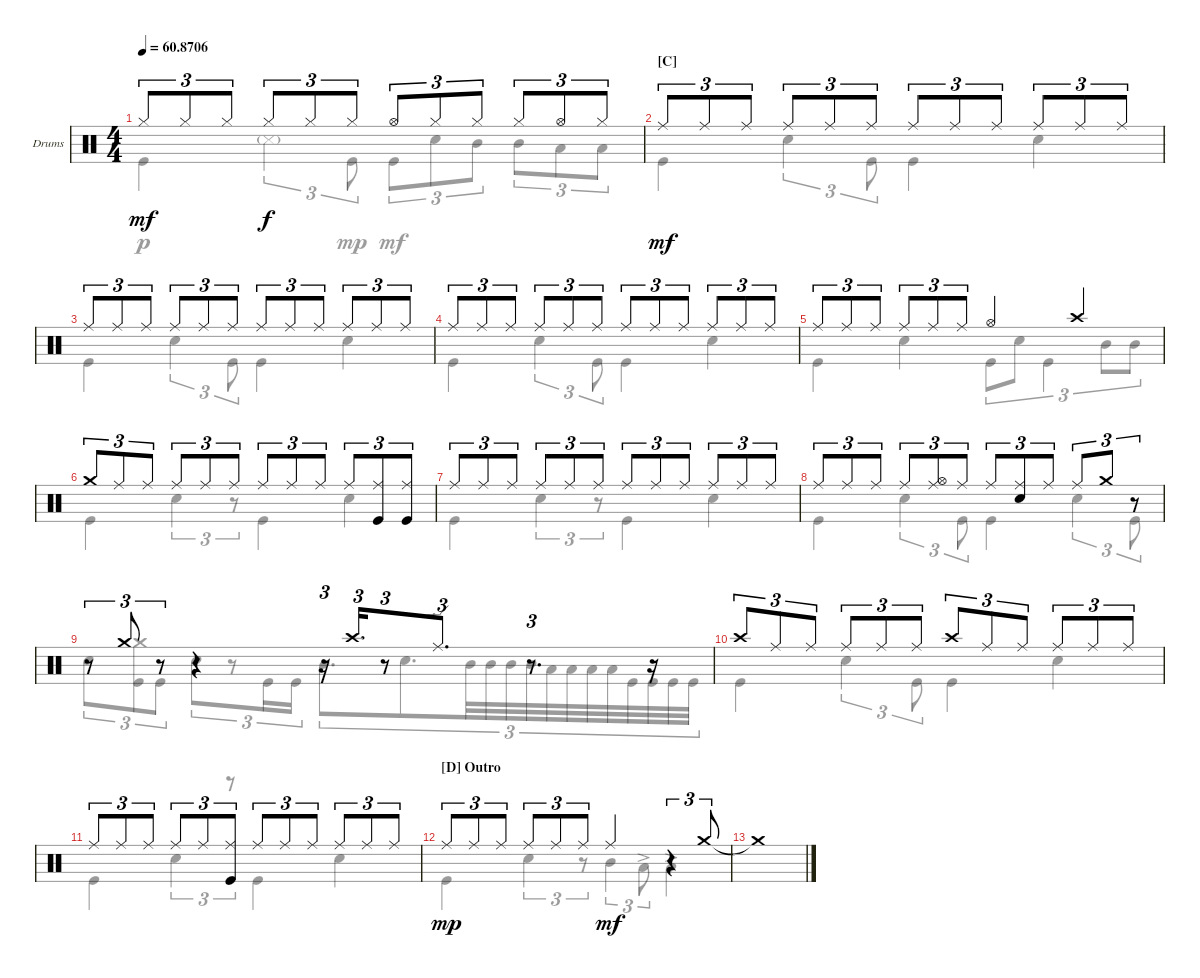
\defaultSystemsLayout 4
\bracketExtendMode nobrackets
\firstSystemTrackNameOrientation horizontal
\otherSystemsTrackNameOrientation horizontal
\track ("Drumkit" "Drums") {instrument percussion}
\staff {score}
\articulation defaults
\voice
\ts (4 4)
\tempo
60.8706
\accidentals auto
\clef neutral
\ottava regular
\simile none
\ks c "Hi-Hat (closed)".8{tu (3 2) dy mf} "Hi-Hat (closed)".8{tu (3 2)} "Hi-Hat (closed)".8{tu (3 2)} "Hi-Hat (closed)".8{tu (3 2) dy f} "Hi-Hat (closed)".8{tu (3 2)} "Hi-Hat (closed)".8{tu (3 2)} "Hi-Hat (open)".8{tu (3 2)} "Hi-Hat (closed)".8{tu (3 2)} "Hi-Hat (closed)".8{tu (3 2)} "Hi-Hat (closed)".8{tu (3 2)} "Hi-Hat (open)".8{tu (3 2)} "Hi-Hat (closed)".8{tu (3 2)}
|
\section ("C" "")
"Ride (middle)".8{tu (3 2) dy mf} "Ride (middle)".8{tu (3 2)} "Ride (middle)".8{tu (3 2)} "Ride (middle)".8{tu (3 2)} "Ride (middle)".8{tu (3 2)} "Ride (middle)".8{tu (3 2)} "Ride (middle)".8{tu (3 2)} "Ride (middle)".8{tu (3 2)} "Ride (middle)".8{tu (3 2)} "Ride (middle)".8{tu (3 2)} "Ride (middle)".8{tu (3 2)} "Ride (middle)".8{tu (3 2)} |
"Ride (middle)".8{tu (3 2)} "Ride (middle)".8{tu (3 2)} "Ride (middle)".8{tu (3 2)} "Ride (middle)".8{tu (3 2)} "Ride (middle)".8{tu (3 2)} "Ride (middle)".8{tu (3 2)} "Ride (middle)".8{tu (3 2)} "Ride (middle)".8{tu (3 2)} "Ride (middle)".8{tu (3 2)} "Ride (middle)".8{tu (3 2)} "Ride (middle)".8{tu (3 2)} "Ride (middle)".8{tu (3 2)} |
"Ride (middle)".8{tu (3 2)} "Ride (middle)".8{tu (3 2)} "Ride (middle)".8{tu (3 2)} "Ride (middle)".8{tu (3 2)} "Ride (middle)".8{tu (3 2)} "Ride (middle)".8{tu (3 2)} "Ride (middle)".8{tu (3 2)} "Ride (middle)".8{tu (3 2)} "Ride (middle)".8{tu (3 2)} "Ride (middle)".8{tu (3 2)} "Ride (middle)".8{tu (3 2)} "Ride (middle)".8{tu (3 2)} |
"Ride (middle)".8{tu (3 2)} "Ride (middle)".8{tu (3 2)} "Ride (middle)".8{tu (3 2)} "Ride (middle)".8{tu (3 2)} "Ride (middle)".8{tu (3 2)} "Ride (middle)".8{tu (3 2)} "Hi-Hat (open)".4 "Crash high (hit)".4 |
"Crash medium (hit)".8{tu (3 2)} "Ride (middle)".8{tu (3 2)} "Ride (middle)".8{tu (3 2)} "Ride (middle)".8{tu (3 2)} "Ride (middle)".8{tu (3 2)} "Ride (middle)".8{tu (3 2)} "Ride (middle)".8{tu (3 2)} "Ride (middle)".8{tu (3 2)} "Ride (middle)".8{tu (3 2)} "Ride (middle)".8{tu (3 2)} ("Ride (middle)" "Kick (hit)").8{tu (3 2)} ("Ride (middle)" "Kick (hit)").8{tu (3 2)} |
"Ride (middle)".8{tu (3 2)} "Ride (middle)".8{tu (3 2)} "Ride (middle)".8{tu (3 2)} "Ride (middle)".8{tu (3 2)} "Ride (middle)".8{tu (3 2)} "Ride (middle)".8{tu (3 2)} "Ride (middle)".8{tu (3 2)} "Ride (middle)".8{tu (3 2)} "Ride (middle)".8{tu (3 2)} "Ride (middle)".8{tu (3 2)} "Ride (middle)".8{tu (3 2)} "Ride (middle)".8{tu (3 2)} |
"Ride (middle)".8{tu (3 2)} "Ride (middle)".8{tu (3 2)} "Ride (middle)".8{tu (3 2)} "Ride (middle)".8{tu (3 2)} ("Ride (middle)" "Hi-Hat (open)").8{tu (3 2)} "Ride (middle)".8{tu (3 2)} "Ride (middle)".8{tu (3 2)} ("Ride (middle)" "Snare (hit) 2").8{tu (3 2)} "Ride (middle)".8{tu (3 2)} "Ride (middle)".8{tu (3 2)} "Crash medium (hit)".8{tu (3 2)} r.8{tu (3 2)} |
r.8{tu (3 2)} "Crash medium (hit)".8{tu (3 2)} r.8{tu (3 2)} r.4 r.16{tu (3 2)} "Crash high (hit)".16{d tu (3 2)} r.8{tu (3 2)} "Ride (edge)".8{d tu (3 2)} r.8{d tu (3 2)} r.16 |
"Crash high (hit)".8{tu (3 2)} "Ride (middle)".8{tu (3 2)} "Ride (middle)".8{tu (3 2)} "Ride (middle)".8{tu (3 2)} "Ride (middle)".8{tu (3 2)} "Ride (middle)".8{tu (3 2)} "Crash high (hit)".8{tu (3 2)} "Ride (middle)".8{tu (3 2)} "Ride (middle)".8{tu (3 2)} "Ride (middle)".8{tu (3 2)} "Ride (middle)".8{tu (3 2)} "Ride (middle)".8{tu (3 2)} |
"Ride (middle)".8{tu (3 2)} "Ride (middle)".8{tu (3 2)} "Ride (middle)".8{tu (3 2)} "Ride (middle)".8{tu (3 2)} "Ride (middle)".8{tu (3 2)} ("Ride (middle)" "Kick (hit)").8{tu (3 2)} "Ride (middle)".8{tu (3 2)} "Ride (middle)".8{tu (3 2)} "Ride (middle)".8{tu (3 2)} "Ride (middle)".8{tu (3 2)} "Ride (middle)".8{tu (3 2)} "Ride (middle)".8{tu (3 2)} |
\section ("D" "Outro")
"Ride (middle)".8{tu (3 2) dy mp} "Ride (middle)".8{tu (3 2)} "Ride (middle)".8{tu (3 2)} "Ride (middle)".8{tu (3 2)} "Ride (middle)".8{tu (3 2)} "Ride (middle)".8{tu (3 2)} "Ride (middle)".4{dy mf} r.4{tu (3 2)} "Crash medium (hit)".8{tu (3 2)} |
"Crash medium (hit)"{t}.1 |
|
|
\voice
\clef neutral
\ottava regular
\simile none
\ks c "Kick (hit)".4{dy p} "Snare (side stick) 3"{g}.4{tu (3 2)} "Kick (hit)".8{tu (3 2) dy mp} "Kick (hit)".8{tu (3 2) dy mf} "Snare (hit) 2".8{tu (3 2)} "Mid Tom (hit)".8{tu (3 2)} "Mid Tom (hit)".8{tu (3 2)} "Low Tom (hit)".8{tu (3 2)} "Low Tom (hit)".8{tu (3 2)}
|
"Kick (hit)".4 "Snare (hit) 2".4{tu (3 2)} "Kick (hit)".8{tu (3 2)} "Kick (hit)".4 "Snare (hit) 2".4 |
"Kick (hit)".4 "Snare (hit) 2".4{tu (3 2)} "Kick (hit)".8{tu (3 2)} "Kick (hit)".4 "Snare (hit) 2".4 |
"Kick (hit)".4 "Snare (hit) 2".4{tu (3 2)} "Kick (hit)".8{tu (3 2)} "Kick (hit)".4 "Snare (hit) 2".4 |
"Kick (hit)".4 "Snare (hit) 2".4 "Kick (hit)".8{tu (3 2)} "Snare (hit) 2".8{tu (3 2)} "Kick (hit)".4{tu (3 2)} "Mid Tom (hit)".8{tu (3 2)} "Mid Tom (hit)".8{tu (3 2)} |
"Kick (hit)".4 "Snare (hit) 2".4{tu (3 2)} r.8{tu (3 2)} "Kick (hit)".4 "Snare (hit) 2".4 |
"Kick (hit)".4 "Snare (hit) 2".4{tu (3 2)} r.8{tu (3 2)} "Kick (hit)".4 "Snare (hit) 2".4 |
"Kick (hit)".4 "Snare (hit) 2".4{tu (3 2)} "Kick (hit)".8{tu (3 2)} "Kick (hit)".4 "Snare (hit) 2".4{tu (3 2)} "Kick (hit)".8{tu (3 2)} |
"Snare (hit) 2".8{tu (3 2)} ("Kick (hit)" "Crash medium (hit)").8{tu (3 2)} "Kick (hit)".8{tu (3 2)} "Snare (hit) 2".8{tu (3 2)} r.8{tu (3 2)} "Kick (hit)".16{tu (3 2)} "Kick (hit)".16{tu (3 2)} "Mid Tom (hit)".8{d tu (3 2)} "Snare (hit) 2".8{d tu (3 2)} "Mid Tom (hit)".32{tu (3 2)} "Mid Tom (hit)".32{tu (3 2)} "Mid Tom (hit)".32{tu (3 2)} "Mid Tom (hit)".32{tu (3 2)} "Low Tom (hit)".32{tu (3 2)} "Low Tom (hit)".32{tu (3 2)} "Low Tom (hit)".32{tu (3 2)} "Low Tom (hit)".32{tu (3 2)} "Kick (hit)".32{tu (3 2)} "Kick (hit)".32{tu (3 2)} "Kick (hit)".32{tu (3 2)} "Kick (hit)".32{tu (3 2)} |
"Kick (hit)".4 "Snare (hit) 2".4{tu (3 2)} "Kick (hit)".8{tu (3 2)} "Kick (hit)".4 "Snare (hit) 2".4 |
"Kick (hit)".4 "Snare (hit) 2".4{tu (3 2)} r.8{tu (3 2)} "Kick (hit)".4 "Snare (hit) 2".4 |
"Kick (hit)".4{dy mp} "Snare (hit) 2".4{tu (3 2)} r.8{tu (3 2)} "Mid Tom (hit)".4{tu (3 2)} "Low Tom (hit)"{ac}.8{tu (3 2)} "Low Tom (hit)"{ac}.4 |
|
|
|
